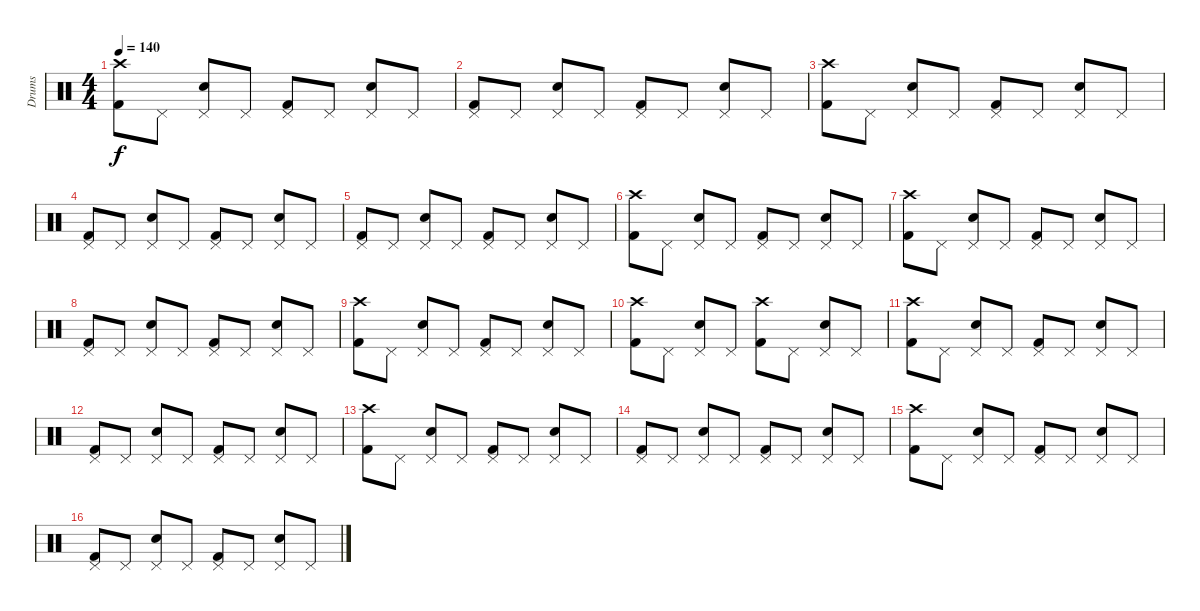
\track ("Drums" "Drums") {instrument percussion}
\staff {score}
\articulation defaults
\ts (4 4)
\tempo 140
\clef neutral
\ks c
("Crash high (hit)" "Kick (hit) 2").8{dy f} "Pedal Hi-Hat (hit)".8 ("Pedal Hi-Hat (hit)" "Snare (hit) 2").8 "Pedal Hi-Hat (hit)".8 ("Pedal Hi-Hat (hit)" "Kick (hit) 2").8 "Pedal Hi-Hat (hit)".8 ("Pedal Hi-Hat (hit)" "Snare (hit) 2").8 "Pedal Hi-Hat (hit)".8 |
("Pedal Hi-Hat (hit)" "Kick (hit) 2").8 "Pedal Hi-Hat (hit)".8 ("Pedal Hi-Hat (hit)" "Snare (hit) 2").8 "Pedal Hi-Hat (hit)".8 ("Pedal Hi-Hat (hit)" "Kick (hit) 2").8 "Pedal Hi-Hat (hit)".8 ("Pedal Hi-Hat (hit)" "Snare (hit) 2").8 "Pedal Hi-Hat (hit)".8 |
("Crash high (hit)" "Kick (hit) 2").8 "Pedal Hi-Hat (hit)".8 ("Pedal Hi-Hat (hit)" "Snare (hit) 2").8 "Pedal Hi-Hat (hit)".8 ("Pedal Hi-Hat (hit)" "Kick (hit) 2").8 "Pedal Hi-Hat (hit)".8 ("Pedal Hi-Hat (hit)" "Snare (hit) 2").8 "Pedal Hi-Hat (hit)".8 |
("Pedal Hi-Hat (hit)" "Kick (hit) 2").8 "Pedal Hi-Hat (hit)".8 ("Pedal Hi-Hat (hit)" "Snare (hit) 2").8 "Pedal Hi-Hat (hit)".8 ("Pedal Hi-Hat (hit)" "Kick (hit) 2").8 "Pedal Hi-Hat (hit)".8 ("Pedal Hi-Hat (hit)" "Snare (hit) 2").8 "Pedal Hi-Hat (hit)".8 |
("Pedal Hi-Hat (hit)" "Kick (hit) 2").8 "Pedal Hi-Hat (hit)".8 ("Pedal Hi-Hat (hit)" "Snare (hit) 2").8 "Pedal Hi-Hat (hit)".8 ("Pedal Hi-Hat (hit)" "Kick (hit) 2").8 "Pedal Hi-Hat (hit)".8 ("Pedal Hi-Hat (hit)" "Snare (hit) 2").8 "Pedal Hi-Hat (hit)".8 |
("Crash high (hit)" "Kick (hit) 2").8 "Pedal Hi-Hat (hit)".8 ("Pedal Hi-Hat (hit)" "Snare (hit) 2").8 "Pedal Hi-Hat (hit)".8 ("Pedal Hi-Hat (hit)" "Kick (hit) 2").8 "Pedal Hi-Hat (hit)".8 ("Pedal Hi-Hat (hit)" "Snare (hit) 2").8 "Pedal Hi-Hat (hit)".8 |
("Crash high (hit)" "Kick (hit) 2").8 "Pedal Hi-Hat (hit)".8 ("Pedal Hi-Hat (hit)" "Snare (hit) 2").8 "Pedal Hi-Hat (hit)".8 ("Pedal Hi-Hat (hit)" "Kick (hit) 2").8 "Pedal Hi-Hat (hit)".8 ("Pedal Hi-Hat (hit)" "Snare (hit) 2").8 "Pedal Hi-Hat (hit)".8 |
("Pedal Hi-Hat (hit)" "Kick (hit) 2").8 "Pedal Hi-Hat (hit)".8 ("Pedal Hi-Hat (hit)" "Snare (hit) 2").8 "Pedal Hi-Hat (hit)".8 ("Pedal Hi-Hat (hit)" "Kick (hit) 2").8 "Pedal Hi-Hat (hit)".8 ("Pedal Hi-Hat (hit)" "Snare (hit) 2").8 "Pedal Hi-Hat (hit)".8 |
("Crash high (hit)" "Kick (hit) 2").8 "Pedal Hi-Hat (hit)".8 ("Pedal Hi-Hat (hit)" "Snare (hit) 2").8 "Pedal Hi-Hat (hit)".8 ("Pedal Hi-Hat (hit)" "Kick (hit) 2").8 "Pedal Hi-Hat (hit)".8 ("Pedal Hi-Hat (hit)" "Snare (hit) 2").8 "Pedal Hi-Hat (hit)".8 |
("Crash high (hit)" "Kick (hit) 2").8 "Pedal Hi-Hat (hit)".8 ("Pedal Hi-Hat (hit)" "Snare (hit) 2").8 "Pedal Hi-Hat (hit)".8 ("Crash high (hit)" "Kick (hit) 2").8 "Pedal Hi-Hat (hit)".8 ("Pedal Hi-Hat (hit)" "Snare (hit) 2").8 "Pedal Hi-Hat (hit)".8 |
("Crash high (hit)" "Kick (hit) 2").8 "Pedal Hi-Hat (hit)".8 ("Pedal Hi-Hat (hit)" "Snare (hit) 2").8 "Pedal Hi-Hat (hit)".8 ("Pedal Hi-Hat (hit)" "Kick (hit) 2").8 "Pedal Hi-Hat (hit)".8 ("Pedal Hi-Hat (hit)" "Snare (hit) 2").8 "Pedal Hi-Hat (hit)".8 |
("Pedal Hi-Hat (hit)" "Kick (hit) 2").8 "Pedal Hi-Hat (hit)".8 ("Pedal Hi-Hat (hit)" "Snare (hit) 2").8 "Pedal Hi-Hat (hit)".8 ("Pedal Hi-Hat (hit)" "Kick (hit) 2").8 "Pedal Hi-Hat (hit)".8 ("Pedal Hi-Hat (hit)" "Snare (hit) 2").8 "Pedal Hi-Hat (hit)".8 |
("Crash high (hit)" "Kick (hit) 2").8 "Pedal Hi-Hat (hit)".8 ("Pedal Hi-Hat (hit)" "Snare (hit) 2").8 "Pedal Hi-Hat (hit)".8 ("Pedal Hi-Hat (hit)" "Kick (hit) 2").8 "Pedal Hi-Hat (hit)".8 ("Pedal Hi-Hat (hit)" "Snare (hit) 2").8 "Pedal Hi-Hat (hit)".8 |
("Pedal Hi-Hat (hit)" "Kick (hit) 2").8 "Pedal Hi-Hat (hit)".8 ("Pedal Hi-Hat (hit)" "Snare (hit) 2").8 "Pedal Hi-Hat (hit)".8 ("Pedal Hi-Hat (hit)" "Kick (hit) 2").8 "Pedal Hi-Hat (hit)".8 ("Pedal Hi-Hat (hit)" "Snare (hit) 2").8 "Pedal Hi-Hat (hit)".8 |
("Crash high (hit)" "Kick (hit) 2").8 "Pedal Hi-Hat (hit)".8 ("Pedal Hi-Hat (hit)" "Snare (hit) 2").8 "Pedal Hi-Hat (hit)".8 ("Pedal Hi-Hat (hit)" "Kick (hit) 2").8 "Pedal Hi-Hat (hit)".8 ("Pedal Hi-Hat (hit)" "Snare (hit) 2").8 "Pedal Hi-Hat (hit)".8 |
("Pedal Hi-Hat (hit)" "Kick (hit) 2").8 "Pedal Hi-Hat (hit)".8 ("Pedal Hi-Hat (hit)" "Snare (hit) 2").8 "Pedal Hi-Hat (hit)".8 ("Pedal Hi-Hat (hit)" "Kick (hit) 2").8 "Pedal Hi-Hat (hit)".8 ("Pedal Hi-Hat (hit)" "Snare (hit) 2").8 "Pedal Hi-Hat (hit)".8
